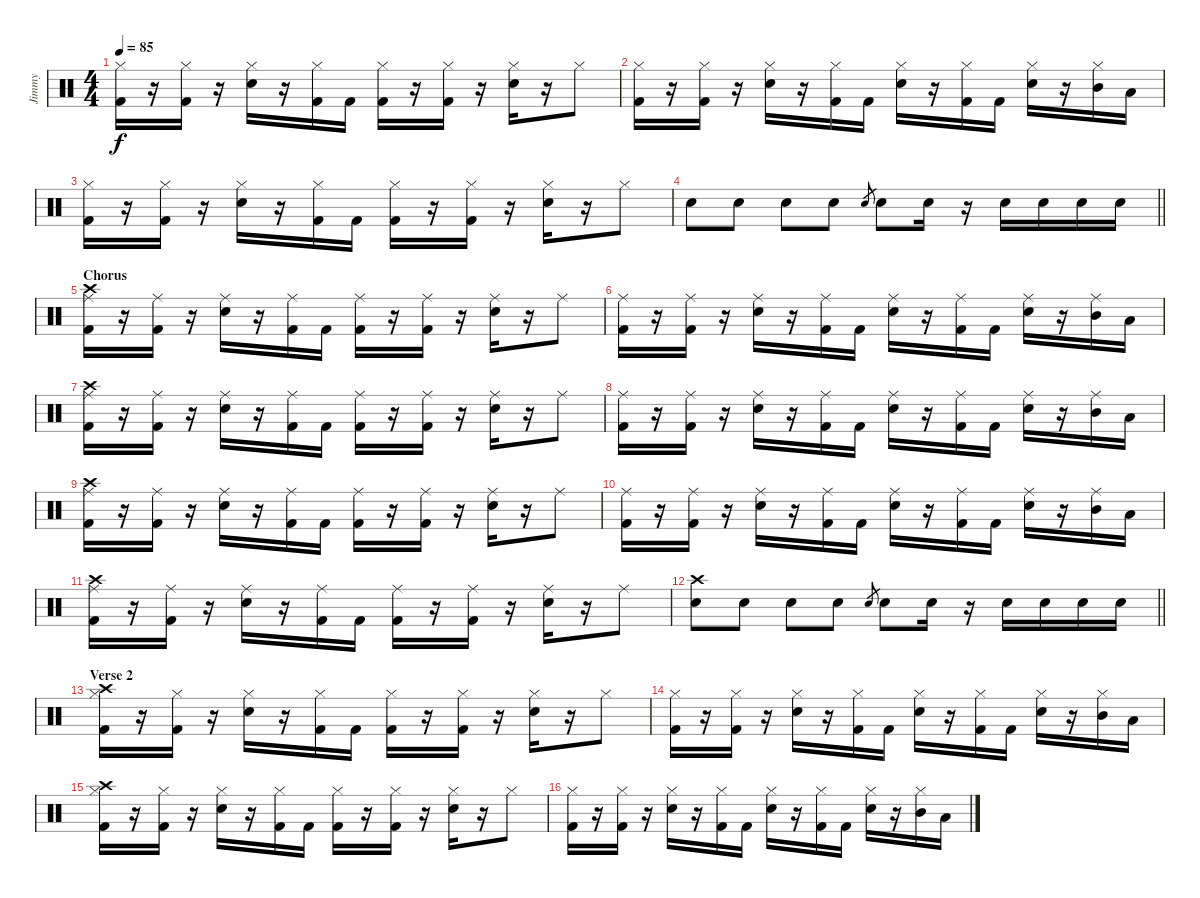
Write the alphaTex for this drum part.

\track ("Jimmy" "Jimmy") {instrument percussion}
\staff {score}
\articulation defaults
\ts (4 4)
\tempo 85
\clef neutral
\ks c
("Hi-Hat (closed)" "Kick (hit) 2").16{dy f} r.16 ("Hi-Hat (closed)" "Kick (hit) 2").16 r.16 ("Hi-Hat (closed)" "Electric Snare (hit)").16 r.16 ("Hi-Hat (closed)" "Kick (hit) 2").16 "Kick (hit) 2".16 ("Hi-Hat (closed)" "Kick (hit) 2").16 r.16 ("Hi-Hat (closed)" "Kick (hit) 2").16 r.16 ("Hi-Hat (closed)" "Electric Snare (hit)").16 r.16 "Hi-Hat (closed)".8 |
("Hi-Hat (closed)" "Kick (hit) 2").16 r.16 ("Hi-Hat (closed)" "Kick (hit) 2").16 r.16 ("Hi-Hat (closed)" "Electric Snare (hit)").16 r.16 ("Hi-Hat (closed)" "Kick (hit) 2").16 "Kick (hit) 2".16 ("Hi-Hat (closed)" "Electric Snare (hit)").16 r.16 ("Hi-Hat (closed)" "Kick (hit) 2").16 "Kick (hit) 2".16 ("Hi-Hat (closed)" "Electric Snare (hit)").16 r.16 ("Hi-Hat (closed)" "Mid Tom (hit)").16 "Low Tom (hit)".16 |
("Hi-Hat (closed)" "Kick (hit) 2").16 r.16 ("Hi-Hat (closed)" "Kick (hit) 2").16 r.16 ("Hi-Hat (closed)" "Electric Snare (hit)").16 r.16 ("Hi-Hat (closed)" "Kick (hit) 2").16 "Kick (hit) 2".16 ("Hi-Hat (closed)" "Kick (hit) 2").16 r.16 ("Hi-Hat (closed)" "Kick (hit) 2").16 r.16 ("Hi-Hat (closed)" "Electric Snare (hit)").16 r.16 "Hi-Hat (closed)".8 |
\barLineRight lightlight "Electric Snare (hit)".8 "Electric Snare (hit)".8 "Electric Snare (hit)".8 "Electric Snare (hit)".8 "Electric Snare (hit)".8{gr} "Electric Snare (hit)".8 "Electric Snare (hit)".16
r.16 "Electric Snare (hit)".16 "Electric Snare (hit)".16 "Electric Snare (hit)".16 "Electric Snare (hit)".16 |
\section ("" "Chorus")
("Ride (middle)" "Crash high (hit)" "Kick (hit) 2").16 r.16 ("Ride (middle)" "Kick (hit) 2").16 r.16 ("Ride (middle)" "Electric Snare (hit)").16 r.16 ("Ride (middle)" "Kick (hit) 2").16 "Kick (hit) 2".16 ("Ride (middle)" "Kick (hit) 2").16 r.16 ("Ride (middle)" "Kick (hit) 2").16 r.16 ("Ride (middle)" "Electric Snare (hit)").16 r.16 "Ride (middle)".8 |
("Ride (middle)" "Kick (hit) 2").16 r.16 ("Ride (middle)" "Kick (hit) 2").16 r.16 ("Ride (middle)" "Electric Snare (hit)").16 r.16 ("Ride (middle)" "Kick (hit) 2").16 "Kick (hit) 2".16 ("Ride (middle)" "Electric Snare (hit)").16 r.16 ("Ride (middle)" "Kick (hit) 2").16 "Kick (hit) 2".16 ("Ride (middle)" "Electric Snare (hit)").16 r.16 ("Ride (middle)" "Mid Tom (hit)").16 "Low Tom (hit)".16 |
("Ride (middle)" "Crash high (hit)" "Kick (hit) 2").16 r.16 ("Ride (middle)" "Kick (hit) 2").16 r.16 ("Ride (middle)" "Electric Snare (hit)").16 r.16 ("Ride (middle)" "Kick (hit) 2").16 "Kick (hit) 2".16 ("Ride (middle)" "Kick (hit) 2").16 r.16 ("Ride (middle)" "Kick (hit) 2").16 r.16 ("Ride (middle)" "Electric Snare (hit)").16 r.16 "Ride (middle)".8 |
("Ride (middle)" "Kick (hit) 2").16 r.16 ("Ride (middle)" "Kick (hit) 2").16 r.16 ("Ride (middle)" "Electric Snare (hit)").16 r.16 ("Ride (middle)" "Kick (hit) 2").16 "Kick (hit) 2".16 ("Ride (middle)" "Electric Snare (hit)").16 r.16 ("Ride (middle)" "Kick (hit) 2").16 "Kick (hit) 2".16 ("Ride (middle)" "Electric Snare (hit)").16 r.16 ("Ride (middle)" "Mid Tom (hit)").16 "Low Tom (hit)".16 |
("Ride (middle)" "Crash high (hit)" "Kick (hit) 2").16 r.16 ("Ride (middle)" "Kick (hit) 2").16 r.16 ("Ride (middle)" "Electric Snare (hit)").16 r.16 ("Ride (middle)" "Kick (hit) 2").16 "Kick (hit) 2".16 ("Ride (middle)" "Kick (hit) 2").16 r.16 ("Ride (middle)" "Kick (hit) 2").16 r.16 ("Ride (middle)" "Electric Snare (hit)").16 r.16 "Ride (middle)".8 |
("Ride (middle)" "Kick (hit) 2").16 r.16 ("Ride (middle)" "Kick (hit) 2").16 r.16 ("Ride (middle)" "Electric Snare (hit)").16 r.16 ("Ride (middle)" "Kick (hit) 2").16 "Kick (hit) 2".16 ("Ride (middle)" "Electric Snare (hit)").16 r.16 ("Ride (middle)" "Kick (hit) 2").16 "Kick (hit) 2".16 ("Ride (middle)" "Electric Snare (hit)").16 r.16 ("Ride (middle)" "Mid Tom (hit)").16 "Low Tom (hit)".16 |
("Ride (middle)" "Crash high (hit)" "Kick (hit) 2").16 r.16 ("Ride (middle)" "Kick (hit) 2").16 r.16 ("Ride (middle)" "Electric Snare (hit)").16 r.16 ("Ride (middle)" "Kick (hit) 2").16 "Kick (hit) 2".16 ("Ride (middle)" "Kick (hit) 2").16 r.16 ("Ride (middle)" "Kick (hit) 2").16 r.16 ("Ride (middle)" "Electric Snare (hit)").16 r.16 "Ride (middle)".8 |
\barLineRight lightlight
("Crash high (hit)" "Electric Snare (hit)").8 "Electric Snare (hit)".8 "Electric Snare (hit)".8 "Electric Snare (hit)".8 "Electric Snare (hit)".8{gr} "Electric Snare (hit)".8 "Electric Snare (hit)".16 r.16 "Electric Snare (hit)".16 "Electric Snare (hit)".16 "Electric Snare (hit)".16 "Electric Snare (hit)".16 |
\section ("" "Verse 2")
("Hi-Hat (closed)" "Crash high (hit)" "Kick (hit) 2").16 r.16 ("Hi-Hat (closed)" "Kick (hit) 2").16 r.16 ("Hi-Hat (closed)" "Electric Snare (hit)").16 r.16 ("Hi-Hat (closed)" "Kick (hit) 2").16 "Kick (hit) 2".16 ("Hi-Hat (closed)" "Kick (hit) 2").16 r.16 ("Hi-Hat (closed)" "Kick (hit) 2").16 r.16 ("Hi-Hat (closed)" "Electric Snare (hit)").16 r.16 "Hi-Hat (closed)".8 |
("Hi-Hat (closed)" "Kick (hit) 2").16 r.16 ("Hi-Hat (closed)" "Kick (hit) 2").16 r.16 ("Hi-Hat (closed)" "Electric Snare (hit)").16 r.16 ("Hi-Hat (closed)" "Kick (hit) 2").16 "Kick (hit) 2".16 ("Hi-Hat (closed)" "Electric Snare (hit)").16 r.16 ("Hi-Hat (closed)" "Kick (hit) 2").16 "Kick (hit) 2".16 ("Hi-Hat (closed)" "Electric Snare (hit)").16 r.16 ("Hi-Hat (closed)" "Mid Tom (hit)").16 "Low Tom (hit)".16 |
("Hi-Hat (closed)" "Crash high (hit)" "Kick (hit) 2").16 r.16 ("Hi-Hat (closed)" "Kick (hit) 2").16 r.16 ("Hi-Hat (closed)" "Electric Snare (hit)").16 r.16 ("Hi-Hat (closed)" "Kick (hit) 2").16 "Kick (hit) 2".16 ("Hi-Hat (closed)" "Kick (hit) 2").16 r.16 ("Hi-Hat (closed)" "Kick (hit) 2").16 r.16 ("Hi-Hat (closed)" "Electric Snare (hit)").16 r.16 "Hi-Hat (closed)".8 |
("Hi-Hat (closed)" "Kick (hit) 2").16 r.16 ("Hi-Hat (closed)" "Kick (hit) 2").16 r.16 ("Hi-Hat (closed)" "Electric Snare (hit)").16 r.16 ("Hi-Hat (closed)" "Kick (hit) 2").16 "Kick (hit) 2".16 ("Hi-Hat (closed)" "Electric Snare (hit)").16 r.16 ("Hi-Hat (closed)" "Kick (hit) 2").16 "Kick (hit) 2".16 ("Hi-Hat (closed)" "Electric Snare (hit)").16 r.16 ("Hi-Hat (closed)" "Mid Tom (hit)").16 "Low Tom (hit)".16
